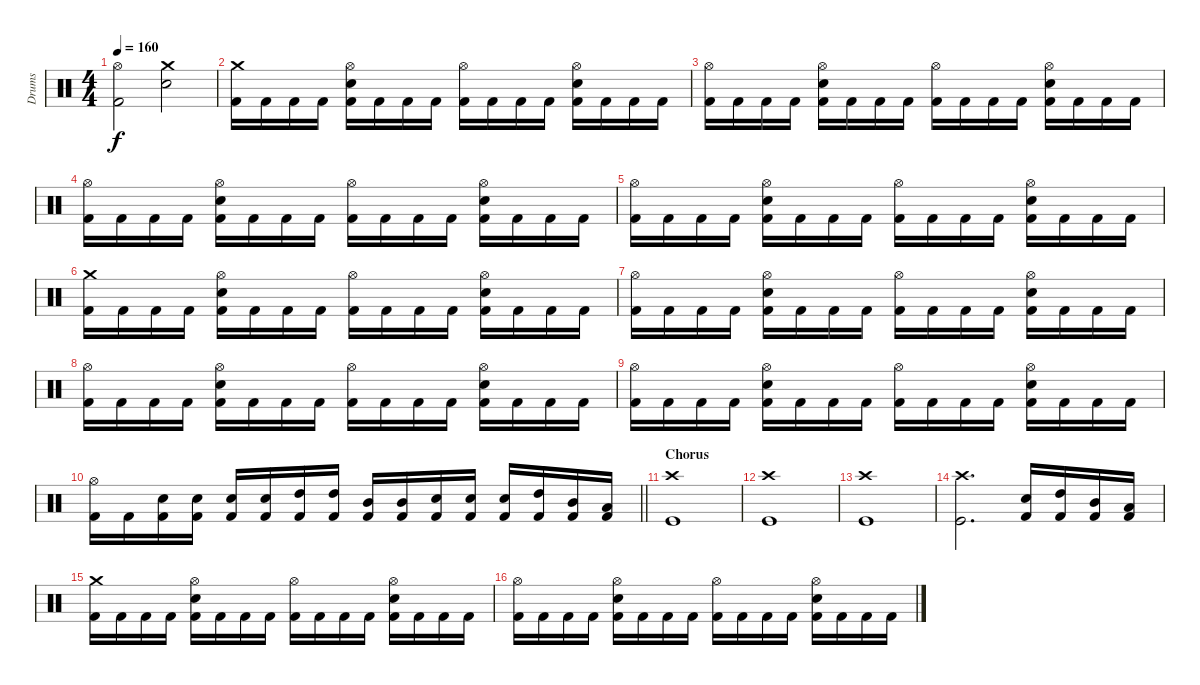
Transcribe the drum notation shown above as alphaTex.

\track ("Drums" "Drums") {instrument percussion}
\staff {score}
\articulation defaults
\ts (4 4)
\tempo 160
\clef neutral
\ks c
("Hi-Hat (open)" "Kick (hit) 2").2{dy f} ("Crash medium (hit)" "Electric Snare (hit)").2 |
("Kick (hit) 2" "Crash medium (hit)").16 "Kick (hit) 2".16 "Kick (hit) 2".16 "Kick (hit) 2".16 ("Kick (hit) 2" "Electric Snare (hit)" "Hi-Hat (open)").16 "Kick (hit) 2".16 "Kick (hit) 2".16 "Kick (hit) 2".16 ("Kick (hit) 2" "Hi-Hat (open)").16 "Kick (hit) 2".16 "Kick (hit) 2".16 "Kick (hit) 2".16 ("Kick (hit) 2" "Electric Snare (hit)" "Hi-Hat (open)").16 "Kick (hit) 2".16 "Kick (hit) 2".16 "Kick (hit) 2".16 |
("Kick (hit) 2" "Hi-Hat (open)").16 "Kick (hit) 2".16 "Kick (hit) 2".16 "Kick (hit) 2".16 ("Kick (hit) 2" "Electric Snare (hit)" "Hi-Hat (open)").16 "Kick (hit) 2".16 "Kick (hit) 2".16 "Kick (hit) 2".16 ("Kick (hit) 2" "Hi-Hat (open)").16 "Kick (hit) 2".16 "Kick (hit) 2".16 "Kick (hit) 2".16 ("Kick (hit) 2" "Electric Snare (hit)" "Hi-Hat (open)").16 "Kick (hit) 2".16 "Kick (hit) 2".16 "Kick (hit) 2".16 |
("Kick (hit) 2" "Hi-Hat (open)").16 "Kick (hit) 2".16 "Kick (hit) 2".16 "Kick (hit) 2".16 ("Kick (hit) 2" "Electric Snare (hit)" "Hi-Hat (open)").16 "Kick (hit) 2".16 "Kick (hit) 2".16 "Kick (hit) 2".16 ("Kick (hit) 2" "Hi-Hat (open)").16 "Kick (hit) 2".16 "Kick (hit) 2".16 "Kick (hit) 2".16 ("Kick (hit) 2" "Electric Snare (hit)" "Hi-Hat (open)").16 "Kick (hit) 2".16 "Kick (hit) 2".16 "Kick (hit) 2".16 |
("Kick (hit) 2" "Hi-Hat (open)").16 "Kick (hit) 2".16 "Kick (hit) 2".16 "Kick (hit) 2".16 ("Kick (hit) 2" "Electric Snare (hit)" "Hi-Hat (open)").16 "Kick (hit) 2".16 "Kick (hit) 2".16 "Kick (hit) 2".16 ("Kick (hit) 2" "Hi-Hat (open)").16 "Kick (hit) 2".16 "Kick (hit) 2".16 "Kick (hit) 2".16 ("Kick (hit) 2" "Electric Snare (hit)" "Hi-Hat (open)").16 "Kick (hit) 2".16 "Kick (hit) 2".16 "Kick (hit) 2".16 |
("Kick (hit) 2" "Crash medium (hit)").16 "Kick (hit) 2".16 "Kick (hit) 2".16 "Kick (hit) 2".16 ("Kick (hit) 2" "Electric Snare (hit)" "Hi-Hat (open)").16 "Kick (hit) 2".16 "Kick (hit) 2".16 "Kick (hit) 2".16 ("Kick (hit) 2" "Hi-Hat (open)").16 "Kick (hit) 2".16 "Kick (hit) 2".16 "Kick (hit) 2".16 ("Kick (hit) 2" "Electric Snare (hit)" "Hi-Hat (open)").16 "Kick (hit) 2".16 "Kick (hit) 2".16 "Kick (hit) 2".16 |
("Kick (hit) 2" "Hi-Hat (open)").16 "Kick (hit) 2".16 "Kick (hit) 2".16 "Kick (hit) 2".16 ("Kick (hit) 2" "Electric Snare (hit)" "Hi-Hat (open)").16 "Kick (hit) 2".16 "Kick (hit) 2".16 "Kick (hit) 2".16 ("Kick (hit) 2" "Hi-Hat (open)").16 "Kick (hit) 2".16 "Kick (hit) 2".16 "Kick (hit) 2".16 ("Kick (hit) 2" "Electric Snare (hit)" "Hi-Hat (open)").16 "Kick (hit) 2".16 "Kick (hit) 2".16 "Kick (hit) 2".16 |
("Kick (hit) 2" "Hi-Hat (open)").16 "Kick (hit) 2".16 "Kick (hit) 2".16 "Kick (hit) 2".16 ("Kick (hit) 2" "Electric Snare (hit)" "Hi-Hat (open)").16 "Kick (hit) 2".16 "Kick (hit) 2".16 "Kick (hit) 2".16 ("Kick (hit) 2" "Hi-Hat (open)").16 "Kick (hit) 2".16 "Kick (hit) 2".16 "Kick (hit) 2".16 ("Kick (hit) 2" "Electric Snare (hit)" "Hi-Hat (open)").16 "Kick (hit) 2".16 "Kick (hit) 2".16 "Kick (hit) 2".16 |
("Kick (hit) 2" "Hi-Hat (open)").16 "Kick (hit) 2".16 "Kick (hit) 2".16 "Kick (hit) 2".16 ("Kick (hit) 2" "Electric Snare (hit)" "Hi-Hat (open)").16 "Kick (hit) 2".16 "Kick (hit) 2".16 "Kick (hit) 2".16 ("Kick (hit) 2" "Hi-Hat (open)").16 "Kick (hit) 2".16 "Kick (hit) 2".16 "Kick (hit) 2".16 ("Kick (hit) 2" "Electric Snare (hit)" "Hi-Hat (open)").16 "Kick (hit) 2".16 "Kick (hit) 2".16 "Kick (hit) 2".16 |
\barLineRight lightlight
("Kick (hit) 2" "Hi-Hat (open)").16 "Kick (hit) 2".16 ("Kick (hit) 2" "Electric Snare (hit)").16 ("Kick (hit) 2" "Electric Snare (hit)").16 ("Kick (hit) 2" "Electric Snare (hit)").16 ("Kick (hit) 2" "Electric Snare (hit)").16 ("Kick (hit) 2" "High Tom (hit)").16 ("Kick (hit) 2" "High Tom (hit)").16 ("Kick (hit) 2" "Mid Tom (hit)").16 ("Kick (hit) 2" "Mid Tom (hit)").16 ("Kick (hit) 2" "Electric Snare (hit)").16 ("Kick (hit) 2" "Electric Snare (hit)").16 ("Kick (hit) 2" "Electric Snare (hit)").16 ("Kick (hit) 2" "High Tom (hit)").16 ("Kick (hit) 2" "Mid Tom (hit)").16 ("Kick (hit) 2" "Low Tom (hit)").16 |
\section ("" "Chorus")
("Crash high (hit)" "Kick (hit)").1 |
("Crash high (hit)" "Kick (hit)").1 |
("Crash high (hit)" "Kick (hit)").1 |
("Crash high (hit)" "Kick (hit)").2{d} ("Kick (hit) 2" "Electric Snare (hit)").16 ("Kick (hit) 2" "High Tom (hit)").16 ("Kick (hit) 2" "Mid Tom (hit)").16 ("Kick (hit) 2" "Low Tom (hit)").16 |
("Kick (hit) 2" "Crash medium (hit)").16 "Kick (hit) 2".16 "Kick (hit) 2".16 "Kick (hit) 2".16 ("Kick (hit) 2" "Electric Snare (hit)" "Hi-Hat (open)").16 "Kick (hit) 2".16 "Kick (hit) 2".16 "Kick (hit) 2".16 ("Kick (hit) 2" "Hi-Hat (open)").16 "Kick (hit) 2".16 "Kick (hit) 2".16 "Kick (hit) 2".16 ("Kick (hit) 2" "Electric Snare (hit)" "Hi-Hat (open)").16 "Kick (hit) 2".16 "Kick (hit) 2".16 "Kick (hit) 2".16 |
("Kick (hit) 2" "Hi-Hat (open)").16 "Kick (hit) 2".16 "Kick (hit) 2".16 "Kick (hit) 2".16 ("Kick (hit) 2" "Electric Snare (hit)" "Hi-Hat (open)").16 "Kick (hit) 2".16 "Kick (hit) 2".16 "Kick (hit) 2".16 ("Kick (hit) 2" "Hi-Hat (open)").16 "Kick (hit) 2".16 "Kick (hit) 2".16 "Kick (hit) 2".16 ("Kick (hit) 2" "Electric Snare (hit)" "Hi-Hat (open)").16 "Kick (hit) 2".16 "Kick (hit) 2".16 "Kick (hit) 2".16
